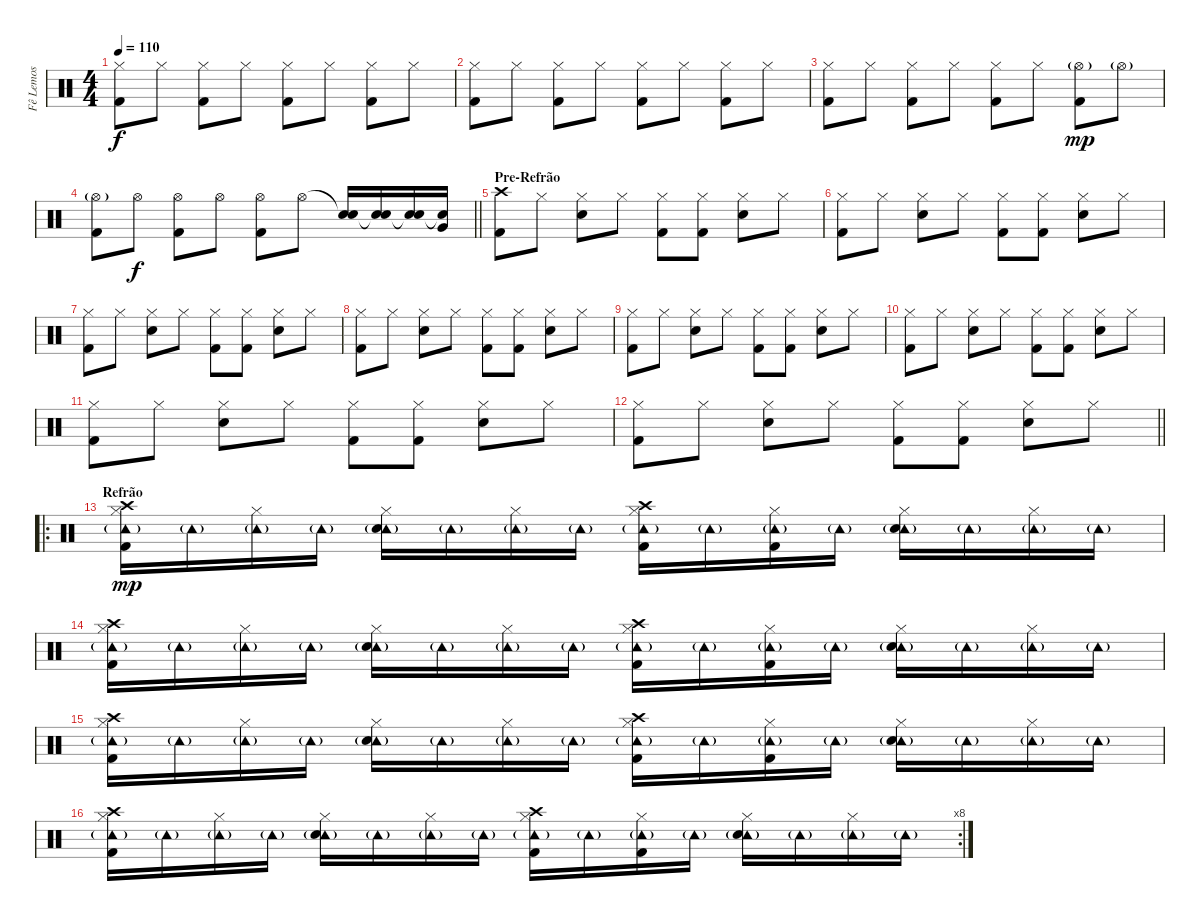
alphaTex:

\track ("Fê Lemos" "Fê Lemos") {instrument percussion}
\staff {score}
\articulation defaults
\ts (4 4)
\tempo 110
\clef neutral
\ks c
("Hi-Hat (closed)" "Kick (hit) 2").8{dy f} "Hi-Hat (closed)".8 ("Hi-Hat (closed)" "Kick (hit) 2").8 "Hi-Hat (closed)".8 ("Hi-Hat (closed)" "Kick (hit) 2").8 "Hi-Hat (closed)".8 ("Hi-Hat (closed)" "Kick (hit) 2").8 "Hi-Hat (closed)".8 |
("Hi-Hat (closed)" "Kick (hit) 2").8 "Hi-Hat (closed)".8 ("Hi-Hat (closed)" "Kick (hit) 2").8 "Hi-Hat (closed)".8 ("Hi-Hat (closed)" "Kick (hit) 2").8 "Hi-Hat (closed)".8 ("Hi-Hat (closed)" "Kick (hit) 2").8 "Hi-Hat (closed)".8 |
("Hi-Hat (closed)" "Kick (hit) 2").8 "Hi-Hat (closed)".8 ("Hi-Hat (closed)" "Kick (hit) 2").8 "Hi-Hat (closed)".8 ("Hi-Hat (closed)" "Kick (hit) 2").8 "Hi-Hat (closed)".8 ("Hi-Hat (open)"{g} "Kick (hit) 2").8{dy mp} "Hi-Hat (open)"{g}.8 |
\barLineRight lightlight
("Hi-Hat (open)"{g} "Kick (hit) 2").8 "Hi-Hat (open)".8{dy f} ("Hi-Hat (open)" "Kick (hit) 2").8 "Hi-Hat (open)".8 ("Hi-Hat (open)" "Kick (hit) 2").8 "Hi-Hat (open)".8 ("Snare (hit)"{t} "Electric Snare (hit)").16 ("Snare (hit)"{t} "Electric Snare (hit)").16 ("Snare (hit)"{t} "Electric Snare (hit)").16 ("Snare (hit)"{t} "Very Low Tom (hit)").16 |
\section ("" "Pre-Refrão")
("Crash high (hit)" "Kick (hit) 2").8 "Hi-Hat (closed)".8 ("Hi-Hat (closed)" "Electric Snare (hit)").8 "Hi-Hat (closed)".8 ("Hi-Hat (closed)" "Kick (hit) 2").8 ("Hi-Hat (closed)" "Kick (hit) 2").8 ("Hi-Hat (closed)" "Electric Snare (hit)").8 "Hi-Hat (closed)".8 |
("Hi-Hat (closed)" "Kick (hit) 2").8 "Hi-Hat (closed)".8 ("Hi-Hat (closed)" "Electric Snare (hit)").8 "Hi-Hat (closed)".8 ("Hi-Hat (closed)" "Kick (hit) 2").8 ("Hi-Hat (closed)" "Kick (hit) 2").8 ("Hi-Hat (closed)" "Electric Snare (hit)").8 "Hi-Hat (closed)".8 |
("Hi-Hat (closed)" "Kick (hit) 2").8 "Hi-Hat (closed)".8 ("Hi-Hat (closed)" "Electric Snare (hit)").8 "Hi-Hat (closed)".8 ("Hi-Hat (closed)" "Kick (hit) 2").8 ("Hi-Hat (closed)" "Kick (hit) 2").8 ("Hi-Hat (closed)" "Electric Snare (hit)").8 "Hi-Hat (closed)".8 |
("Hi-Hat (closed)" "Kick (hit) 2").8 "Hi-Hat (closed)".8 ("Hi-Hat (closed)" "Electric Snare (hit)").8 "Hi-Hat (closed)".8 ("Hi-Hat (closed)" "Kick (hit) 2").8 ("Hi-Hat (closed)" "Kick (hit) 2").8 ("Hi-Hat (closed)" "Electric Snare (hit)").8 "Hi-Hat (closed)".8 |
("Hi-Hat (closed)" "Kick (hit) 2").8 "Hi-Hat (closed)".8 ("Hi-Hat (closed)" "Electric Snare (hit)").8 "Hi-Hat (closed)".8 ("Hi-Hat (closed)" "Kick (hit) 2").8 ("Hi-Hat (closed)" "Kick (hit) 2").8 ("Hi-Hat (closed)" "Electric Snare (hit)").8 "Hi-Hat (closed)".8 |
("Hi-Hat (closed)" "Kick (hit) 2").8 "Hi-Hat (closed)".8 ("Hi-Hat (closed)" "Electric Snare (hit)").8 "Hi-Hat (closed)".8 ("Hi-Hat (closed)" "Kick (hit) 2").8 ("Hi-Hat (closed)" "Kick (hit) 2").8 ("Hi-Hat (closed)" "Electric Snare (hit)").8 "Hi-Hat (closed)".8 |
("Hi-Hat (closed)" "Kick (hit) 2").8 "Hi-Hat (closed)".8 ("Hi-Hat (closed)" "Electric Snare (hit)").8 "Hi-Hat (closed)".8 ("Hi-Hat (closed)" "Kick (hit) 2").8 ("Hi-Hat (closed)" "Kick (hit) 2").8 ("Hi-Hat (closed)" "Electric Snare (hit)").8 "Hi-Hat (closed)".8 |
\barLineRight lightlight
("Hi-Hat (closed)" "Kick (hit) 2").8 "Hi-Hat (closed)".8 ("Hi-Hat (closed)" "Electric Snare (hit)").8 "Hi-Hat (closed)".8 ("Hi-Hat (closed)" "Kick (hit) 2").8 ("Hi-Hat (closed)" "Kick (hit) 2").8 ("Hi-Hat (closed)" "Electric Snare (hit)").8 "Hi-Hat (closed)".8 |
\ro
\section ("" "Refrão")
("Tambourine (hit)"{g} "Crash high (hit)" "Hi-Hat (closed)" "Kick (hit) 2").16{dy mp} "Tambourine (hit)"{g}.16 ("Tambourine (hit)"{g} "Hi-Hat (closed)").16 "Tambourine (hit)"{g}.16 ("Tambourine (hit)"{g} "Hi-Hat (closed)" "Electric Snare (hit)").16 "Tambourine (hit)"{g}.16 ("Tambourine (hit)"{g} "Hi-Hat (closed)").16 "Tambourine (hit)"{g}.16 ("Tambourine (hit)"{g} "Crash high (hit)" "Hi-Hat (closed)" "Kick (hit) 2").16 "Tambourine (hit)"{g}.16 ("Tambourine (hit)"{g} "Hi-Hat (closed)" "Kick (hit) 2").16 "Tambourine (hit)"{g}.16 ("Tambourine (hit)"{g} "Hi-Hat (closed)" "Electric Snare (hit)").16 "Tambourine (hit)"{g}.16 ("Tambourine (hit)"{g} "Hi-Hat (closed)").16 "Tambourine (hit)"{g}.16 |
("Tambourine (hit)"{g} "Crash high (hit)" "Hi-Hat (closed)" "Kick (hit) 2").16 "Tambourine (hit)"{g}.16 ("Tambourine (hit)"{g} "Hi-Hat (closed)").16 "Tambourine (hit)"{g}.16 ("Tambourine (hit)"{g} "Hi-Hat (closed)" "Electric Snare (hit)").16 "Tambourine (hit)"{g}.16 ("Tambourine (hit)"{g} "Hi-Hat (closed)").16 "Tambourine (hit)"{g}.16 ("Tambourine (hit)"{g} "Crash high (hit)" "Hi-Hat (closed)" "Kick (hit) 2").16 "Tambourine (hit)"{g}.16 ("Tambourine (hit)"{g} "Hi-Hat (closed)" "Kick (hit) 2").16 "Tambourine (hit)"{g}.16 ("Tambourine (hit)"{g} "Hi-Hat (closed)" "Electric Snare (hit)").16 "Tambourine (hit)"{g}.16 ("Tambourine (hit)"{g} "Hi-Hat (closed)").16 "Tambourine (hit)"{g}.16 |
("Tambourine (hit)"{g} "Crash high (hit)" "Hi-Hat (closed)" "Kick (hit) 2").16 "Tambourine (hit)"{g}.16 ("Tambourine (hit)"{g} "Hi-Hat (closed)").16 "Tambourine (hit)"{g}.16 ("Tambourine (hit)"{g} "Hi-Hat (closed)" "Electric Snare (hit)").16 "Tambourine (hit)"{g}.16 ("Tambourine (hit)"{g} "Hi-Hat (closed)").16 "Tambourine (hit)"{g}.16 ("Tambourine (hit)"{g} "Crash high (hit)" "Hi-Hat (closed)" "Kick (hit) 2").16 "Tambourine (hit)"{g}.16 ("Tambourine (hit)"{g} "Hi-Hat (closed)" "Kick (hit) 2").16 "Tambourine (hit)"{g}.16 ("Tambourine (hit)"{g} "Hi-Hat (closed)" "Electric Snare (hit)").16 "Tambourine (hit)"{g}.16 ("Tambourine (hit)"{g} "Hi-Hat (closed)").16 "Tambourine (hit)"{g}.16 |
\rc 8
("Tambourine (hit)"{g} "Crash high (hit)" "Hi-Hat (closed)" "Kick (hit) 2").16 "Tambourine (hit)"{g}.16 ("Tambourine (hit)"{g} "Hi-Hat (closed)").16 "Tambourine (hit)"{g}.16 ("Tambourine (hit)"{g} "Hi-Hat (closed)" "Electric Snare (hit)").16 "Tambourine (hit)"{g}.16 ("Tambourine (hit)"{g} "Hi-Hat (closed)").16 "Tambourine (hit)"{g}.16 ("Tambourine (hit)"{g} "Crash high (hit)" "Hi-Hat (closed)" "Kick (hit) 2").16 "Tambourine (hit)"{g}.16 ("Tambourine (hit)"{g} "Hi-Hat (closed)" "Kick (hit) 2").16 "Tambourine (hit)"{g}.16 ("Tambourine (hit)"{g} "Hi-Hat (closed)" "Electric Snare (hit)").16 "Tambourine (hit)"{g}.16 ("Tambourine (hit)"{g} "Hi-Hat (closed)").16 "Tambourine (hit)"{g}.16
